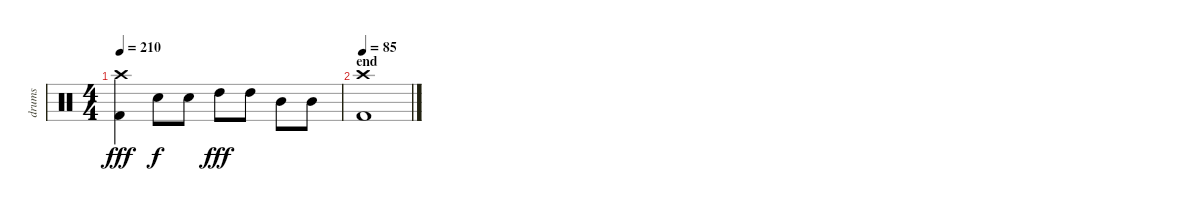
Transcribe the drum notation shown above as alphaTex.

\track ("drums" "drums") {instrument percussion}
\staff {score}
\articulation defaults
\ts (4 4)
\tempo 210
\clef neutral
\ks c
("Crash high (hit)" "Kick (hit) 2").4{dy fff} "Snare (hit) 2".8{dy f} "Snare (hit) 2".8 "High Tom (hit)".8{dy fff} "High Tom (hit)".8 "Mid Tom (hit)".8 "Mid Tom (hit)".8 |
\section ("" "end")
\tempo 85
("Crash high (hit)" "Kick (hit) 2").1
